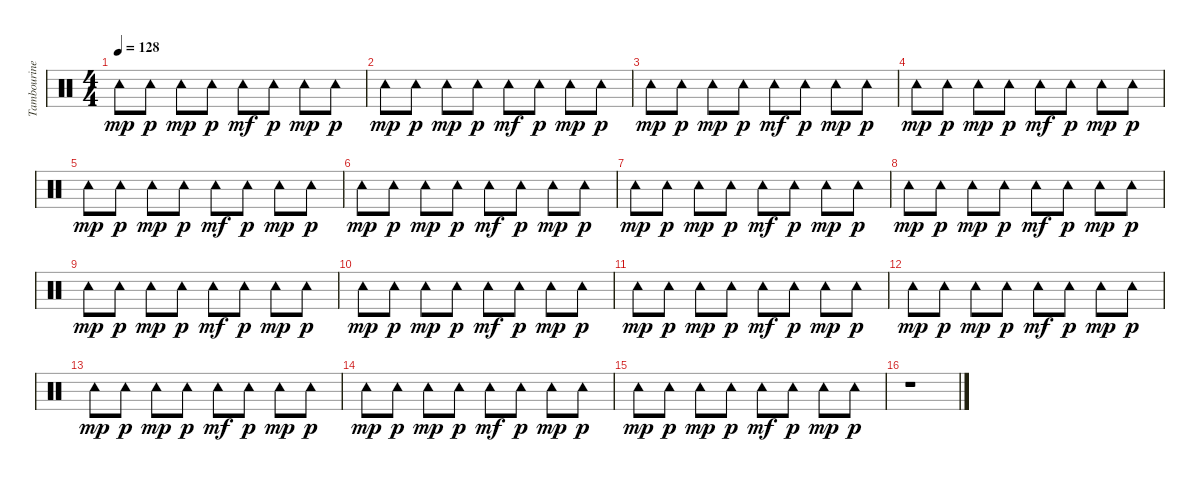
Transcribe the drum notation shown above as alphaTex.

\track ("Tambourine" "Tambourine") {instrument percussion}
\staff {score}
\articulation defaults
\ts (4 4)
\tempo 128
\clef neutral
\ks c "Tambourine (hit)".8{dy mp} "Tambourine (hit)".8{dy p} "Tambourine (hit)".8{dy mp} "Tambourine (hit)".8{dy p} "Tambourine (hit)".8{dy mf} "Tambourine (hit)".8{dy p} "Tambourine (hit)".8{dy mp} "Tambourine (hit)".8{dy p}
|
"Tambourine (hit)".8{dy mp} "Tambourine (hit)".8{dy p} "Tambourine (hit)".8{dy mp} "Tambourine (hit)".8{dy p} "Tambourine (hit)".8{dy mf} "Tambourine (hit)".8{dy p} "Tambourine (hit)".8{dy mp} "Tambourine (hit)".8{dy p} |
"Tambourine (hit)".8{dy mp} "Tambourine (hit)".8{dy p} "Tambourine (hit)".8{dy mp} "Tambourine (hit)".8{dy p} "Tambourine (hit)".8{dy mf} "Tambourine (hit)".8{dy p} "Tambourine (hit)".8{dy mp} "Tambourine (hit)".8{dy p} |
"Tambourine (hit)".8{dy mp} "Tambourine (hit)".8{dy p} "Tambourine (hit)".8{dy mp} "Tambourine (hit)".8{dy p} "Tambourine (hit)".8{dy mf} "Tambourine (hit)".8{dy p} "Tambourine (hit)".8{dy mp} "Tambourine (hit)".8{dy p} |
"Tambourine (hit)".8{dy mp} "Tambourine (hit)".8{dy p} "Tambourine (hit)".8{dy mp} "Tambourine (hit)".8{dy p} "Tambourine (hit)".8{dy mf} "Tambourine (hit)".8{dy p} "Tambourine (hit)".8{dy mp} "Tambourine (hit)".8{dy p} |
"Tambourine (hit)".8{dy mp} "Tambourine (hit)".8{dy p} "Tambourine (hit)".8{dy mp} "Tambourine (hit)".8{dy p} "Tambourine (hit)".8{dy mf} "Tambourine (hit)".8{dy p} "Tambourine (hit)".8{dy mp} "Tambourine (hit)".8{dy p} |
"Tambourine (hit)".8{dy mp} "Tambourine (hit)".8{dy p} "Tambourine (hit)".8{dy mp} "Tambourine (hit)".8{dy p} "Tambourine (hit)".8{dy mf} "Tambourine (hit)".8{dy p} "Tambourine (hit)".8{dy mp} "Tambourine (hit)".8{dy p} |
"Tambourine (hit)".8{dy mp} "Tambourine (hit)".8{dy p} "Tambourine (hit)".8{dy mp} "Tambourine (hit)".8{dy p} "Tambourine (hit)".8{dy mf} "Tambourine (hit)".8{dy p} "Tambourine (hit)".8{dy mp} "Tambourine (hit)".8{dy p} |
"Tambourine (hit)".8{dy mp} "Tambourine (hit)".8{dy p} "Tambourine (hit)".8{dy mp} "Tambourine (hit)".8{dy p} "Tambourine (hit)".8{dy mf} "Tambourine (hit)".8{dy p} "Tambourine (hit)".8{dy mp} "Tambourine (hit)".8{dy p} |
"Tambourine (hit)".8{dy mp} "Tambourine (hit)".8{dy p} "Tambourine (hit)".8{dy mp} "Tambourine (hit)".8{dy p} "Tambourine (hit)".8{dy mf} "Tambourine (hit)".8{dy p} "Tambourine (hit)".8{dy mp} "Tambourine (hit)".8{dy p} |
"Tambourine (hit)".8{dy mp} "Tambourine (hit)".8{dy p} "Tambourine (hit)".8{dy mp} "Tambourine (hit)".8{dy p} "Tambourine (hit)".8{dy mf} "Tambourine (hit)".8{dy p} "Tambourine (hit)".8{dy mp} "Tambourine (hit)".8{dy p} |
"Tambourine (hit)".8{dy mp} "Tambourine (hit)".8{dy p} "Tambourine (hit)".8{dy mp} "Tambourine (hit)".8{dy p} "Tambourine (hit)".8{dy mf} "Tambourine (hit)".8{dy p} "Tambourine (hit)".8{dy mp} "Tambourine (hit)".8{dy p} |
"Tambourine (hit)".8{dy mp} "Tambourine (hit)".8{dy p} "Tambourine (hit)".8{dy mp} "Tambourine (hit)".8{dy p} "Tambourine (hit)".8{dy mf} "Tambourine (hit)".8{dy p} "Tambourine (hit)".8{dy mp} "Tambourine (hit)".8{dy p} |
"Tambourine (hit)".8{dy mp} "Tambourine (hit)".8{dy p} "Tambourine (hit)".8{dy mp} "Tambourine (hit)".8{dy p} "Tambourine (hit)".8{dy mf} "Tambourine (hit)".8{dy p} "Tambourine (hit)".8{dy mp} "Tambourine (hit)".8{dy p} |
"Tambourine (hit)".8{dy mp} "Tambourine (hit)".8{dy p} "Tambourine (hit)".8{dy mp} "Tambourine (hit)".8{dy p} "Tambourine (hit)".8{dy mf} "Tambourine (hit)".8{dy p} "Tambourine (hit)".8{dy mp} "Tambourine (hit)".8{dy p} |
r.1
